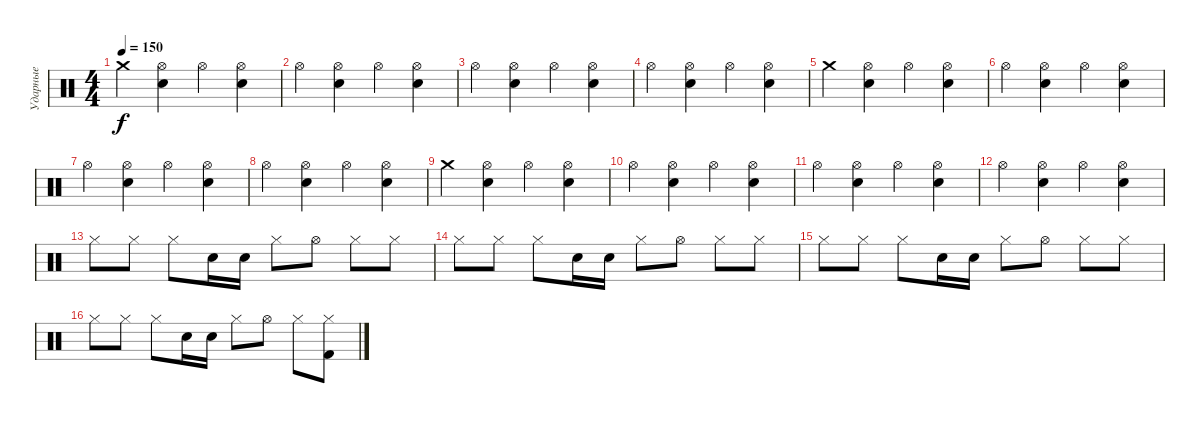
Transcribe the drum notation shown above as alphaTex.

\track ("Ударные" "Ударные") {instrument percussion}
\staff {score}
\articulation defaults
\ts (4 4)
\tempo 150
\clef neutral
\ks c "Crash medium (hit)".4{dy f}
("Hi-Hat (open)" "Snare (hit) 2").4 "Hi-Hat (open)".4 ("Hi-Hat (open)" "Snare (hit) 2").4 |
"Hi-Hat (open)".4 ("Hi-Hat (open)" "Snare (hit) 2").4 "Hi-Hat (open)".4 ("Hi-Hat (open)" "Snare (hit) 2").4 |
"Hi-Hat (open)".4 ("Hi-Hat (open)" "Snare (hit) 2").4 "Hi-Hat (open)".4 ("Hi-Hat (open)" "Snare (hit) 2").4 |
"Hi-Hat (open)".4 ("Hi-Hat (open)" "Snare (hit) 2").4 "Hi-Hat (open)".4 ("Hi-Hat (open)" "Snare (hit) 2").4 |
"Crash medium (hit)".4 ("Hi-Hat (open)" "Snare (hit) 2").4 "Hi-Hat (open)".4 ("Hi-Hat (open)" "Snare (hit) 2").4 |
"Hi-Hat (open)".4 ("Hi-Hat (open)" "Snare (hit) 2").4 "Hi-Hat (open)".4 ("Hi-Hat (open)" "Snare (hit) 2").4 |
"Hi-Hat (open)".4 ("Hi-Hat (open)" "Snare (hit) 2").4 "Hi-Hat (open)".4 ("Hi-Hat (open)" "Snare (hit) 2").4 |
"Hi-Hat (open)".4 ("Hi-Hat (open)" "Snare (hit) 2").4 "Hi-Hat (open)".4 ("Hi-Hat (open)" "Snare (hit) 2").4 |
"Crash medium (hit)".4 ("Hi-Hat (open)" "Snare (hit) 2").4 "Hi-Hat (open)".4 ("Hi-Hat (open)" "Snare (hit) 2").4 |
"Hi-Hat (open)".4 ("Hi-Hat (open)" "Snare (hit) 2").4 "Hi-Hat (open)".4 ("Hi-Hat (open)" "Snare (hit) 2").4 |
"Hi-Hat (open)".4 ("Hi-Hat (open)" "Snare (hit) 2").4 "Hi-Hat (open)".4 ("Hi-Hat (open)" "Snare (hit) 2").4 |
"Hi-Hat (open)".4 ("Hi-Hat (open)" "Snare (hit) 2").4 "Hi-Hat (open)".4 ("Hi-Hat (open)" "Snare (hit) 2").4 |
"Hi-Hat (closed)".8 "Hi-Hat (closed)".8 "Hi-Hat (closed)".8 "Snare (hit) 2".16 "Snare (hit) 2".16 "Hi-Hat (closed)".8 "Hi-Hat (open)".8 "Hi-Hat (closed)".8 "Hi-Hat (closed)".8 |
"Hi-Hat (closed)".8 "Hi-Hat (closed)".8 "Hi-Hat (closed)".8 "Snare (hit) 2".16 "Snare (hit) 2".16 "Hi-Hat (closed)".8 "Hi-Hat (open)".8 "Hi-Hat (closed)".8 "Hi-Hat (closed)".8 |
"Hi-Hat (closed)".8 "Hi-Hat (closed)".8 "Hi-Hat (closed)".8 "Snare (hit) 2".16 "Snare (hit) 2".16 "Hi-Hat (closed)".8 "Hi-Hat (open)".8 "Hi-Hat (closed)".8 "Hi-Hat (closed)".8 |
"Hi-Hat (closed)".8 "Hi-Hat (closed)".8 "Hi-Hat (closed)".8 "Snare (hit) 2".16 "Snare (hit) 2".16 "Hi-Hat (closed)".8 "Hi-Hat (open)".8 "Hi-Hat (closed)".8 ("Hi-Hat (closed)" "Kick (hit) 2").8
